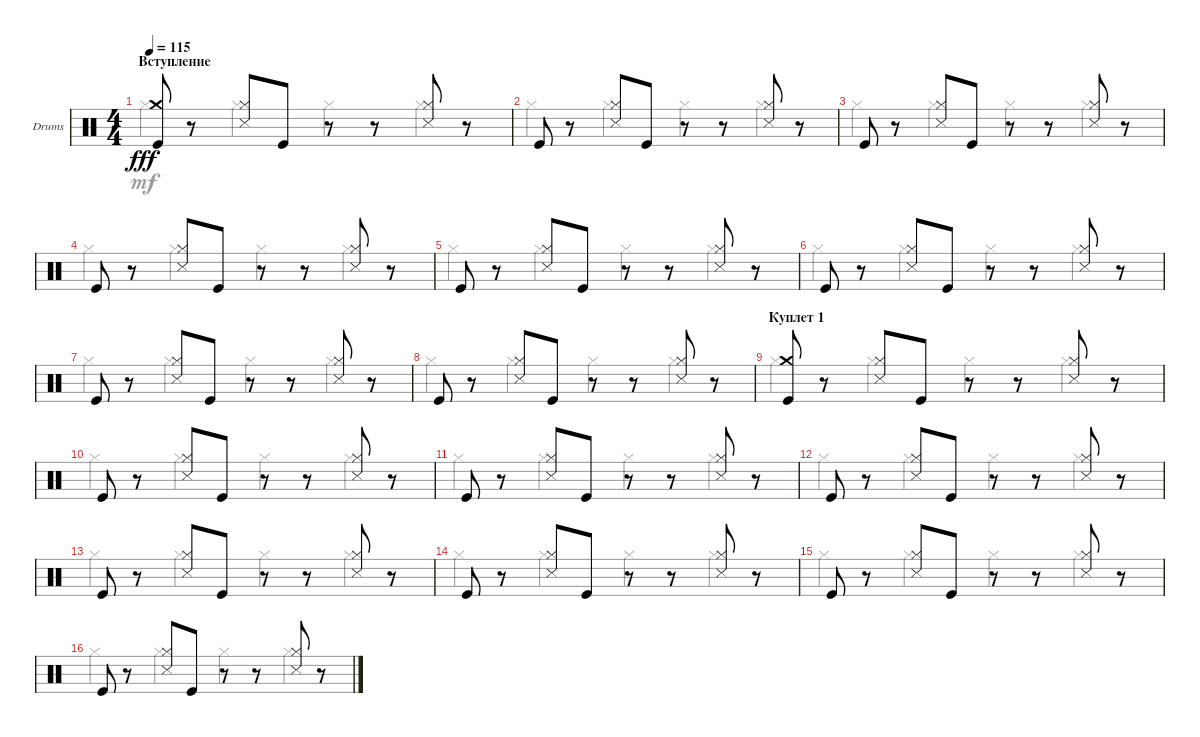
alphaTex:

\defaultSystemsLayout 4
\bracketExtendMode groupsimilarinstruments
\firstSystemTrackNameOrientation horizontal
\otherSystemsTrackNameOrientation horizontal
\track ("Миша \"Пчёлка\" Краев (Ударные)" "Drums") {instrument percussion}
\staff {score}
\articulation defaults
\voice
\ts (4 4)
\section ("" "Вступление")
\tempo 115
\clef neutral
\ks c
("Kick (hit)" "Crash medium (hit)").8{dy fff} r.8 ("Hi-Hat (closed)" "Snare (side stick) 3").8 "Kick (hit)".8 r.8 r.8 ("Hi-Hat (closed)" "Snare (side stick) 3").8 r.8 |
"Kick (hit)".8 r.8 ("Hi-Hat (closed)" "Snare (side stick) 3").8 "Kick (hit)".8 r.8 r.8 ("Snare (side stick) 3" "Hi-Hat (closed)").8 r.8 |
"Kick (hit)".8 r.8 ("Hi-Hat (closed)" "Snare (side stick) 3").8 "Kick (hit)".8 r.8 r.8 ("Hi-Hat (closed)" "Snare (side stick) 3").8 r.8 |
"Kick (hit)".8 r.8 ("Hi-Hat (closed)" "Snare (side stick) 3").8 "Kick (hit)".8 r.8 r.8 ("Hi-Hat (closed)" "Snare (side stick) 3").8 r.8 |
"Kick (hit)".8 r.8 ("Hi-Hat (closed)" "Snare (side stick) 3").8 "Kick (hit)".8 r.8 r.8 ("Snare (side stick) 3" "Hi-Hat (closed)").8 r.8 |
"Kick (hit)".8 r.8 ("Hi-Hat (closed)" "Snare (side stick) 3").8 "Kick (hit)".8 r.8 r.8 ("Hi-Hat (closed)" "Snare (side stick) 3").8 r.8 |
"Kick (hit)".8 r.8 ("Snare (side stick) 3" "Hi-Hat (closed)").8 "Kick (hit)".8 r.8 r.8 ("Snare (side stick) 3" "Hi-Hat (closed)").8 r.8 |
"Kick (hit)".8 r.8 ("Hi-Hat (closed)" "Snare (side stick) 3").8 "Kick (hit)".8 r.8 r.8 ("Hi-Hat (closed)" "Snare (side stick) 3").8 r.8 |
\section ("" "Куплет 1")
("Kick (hit)" "Crash medium (hit)").8 r.8 ("Hi-Hat (closed)" "Snare (side stick) 3").8 "Kick (hit)".8 r.8 r.8 ("Hi-Hat (closed)" "Snare (side stick) 3").8 r.8 |
"Kick (hit)".8 r.8 ("Snare (side stick) 3" "Hi-Hat (closed)").8 "Kick (hit)".8 r.8 r.8 ("Hi-Hat (closed)" "Snare (side stick) 3").8 r.8 |
"Kick (hit)".8 r.8 ("Hi-Hat (closed)" "Snare (side stick) 3").8 "Kick (hit)".8 r.8 r.8 ("Snare (side stick) 3" "Hi-Hat (closed)").8 r.8 |
"Kick (hit)".8 r.8 ("Snare (side stick) 3" "Hi-Hat (closed)").8 "Kick (hit)".8 r.8 r.8 ("Snare (side stick) 3" "Hi-Hat (closed)").8 r.8 |
"Kick (hit)".8 r.8 ("Hi-Hat (closed)" "Snare (side stick) 3").8 "Kick (hit)".8 r.8 r.8 ("Hi-Hat (closed)" "Snare (side stick) 3").8 r.8 |
"Kick (hit)".8 r.8 ("Hi-Hat (closed)" "Snare (side stick) 3").8 "Kick (hit)".8 r.8 r.8 ("Hi-Hat (closed)" "Snare (side stick) 3").8 r.8 |
"Kick (hit)".8 r.8 ("Hi-Hat (closed)" "Snare (side stick) 3").8 "Kick (hit)".8 r.8 r.8 ("Snare (side stick) 3" "Hi-Hat (closed)").8 r.8 |
"Kick (hit)".8 r.8 ("Hi-Hat (closed)" "Snare (side stick) 3").8 "Kick (hit)".8 r.8 r.8 ("Hi-Hat (closed)" "Snare (side stick) 3").8 r.8
\voice
\clef neutral
\ottava regular
\simile none
\ks c "Hi-Hat (closed)".4{dy mf} "Hi-Hat (closed)".4 "Hi-Hat (closed)".4 "Hi-Hat (closed)".4
|
"Hi-Hat (closed)".4 "Hi-Hat (closed)".4 "Hi-Hat (closed)".4 "Hi-Hat (closed)".4 |
"Hi-Hat (closed)".4 "Hi-Hat (closed)".4 "Hi-Hat (closed)".4 "Hi-Hat (closed)".4 |
"Hi-Hat (closed)".4 "Hi-Hat (closed)".4 "Hi-Hat (closed)".4 "Hi-Hat (closed)".4 |
"Hi-Hat (closed)".4 "Hi-Hat (closed)".4 "Hi-Hat (closed)".4 "Hi-Hat (closed)".4 |
"Hi-Hat (closed)".4 "Hi-Hat (closed)".4 "Hi-Hat (closed)".4 "Hi-Hat (closed)".4 |
"Hi-Hat (closed)".4 "Hi-Hat (closed)".4 "Hi-Hat (closed)".4 "Hi-Hat (closed)".4 |
"Hi-Hat (closed)".4 "Hi-Hat (closed)".4 "Hi-Hat (closed)".4 "Hi-Hat (closed)".4 |
"Hi-Hat (closed)".4 "Hi-Hat (closed)".4 "Hi-Hat (closed)".4 "Hi-Hat (closed)".4 |
"Hi-Hat (closed)".4 "Hi-Hat (closed)".4 "Hi-Hat (closed)".4 "Hi-Hat (closed)".4 |
"Hi-Hat (closed)".4 "Hi-Hat (closed)".4 "Hi-Hat (closed)".4 "Hi-Hat (closed)".4 |
"Hi-Hat (closed)".4 "Hi-Hat (closed)".4 "Hi-Hat (closed)".4 "Hi-Hat (closed)".4 |
"Hi-Hat (closed)".4 "Hi-Hat (closed)".4 "Hi-Hat (closed)".4 "Hi-Hat (closed)".4 |
"Hi-Hat (closed)".4 "Hi-Hat (closed)".4 "Hi-Hat (closed)".4 "Hi-Hat (closed)".4 |
"Hi-Hat (closed)".4 "Hi-Hat (closed)".4 "Hi-Hat (closed)".4 "Hi-Hat (closed)".4 |
"Hi-Hat (closed)".4 "Hi-Hat (closed)".4 "Hi-Hat (closed)".4 "Hi-Hat (closed)".4
